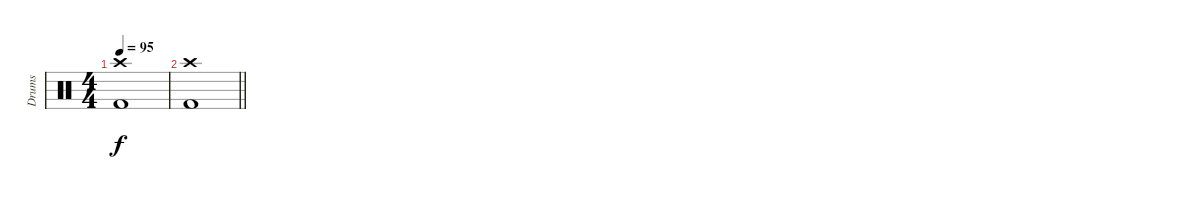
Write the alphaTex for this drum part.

\track ("Drums" "Drums") {instrument percussion}
\staff {score}
\articulation defaults
\ts (4 4)
\tempo 95
\clef neutral
\ks c
("Kick (hit) 2" "Crash high (hit)").1{dy f} |
\barLineRight lightlight
("Kick (hit) 2" "Crash high (hit)").1
